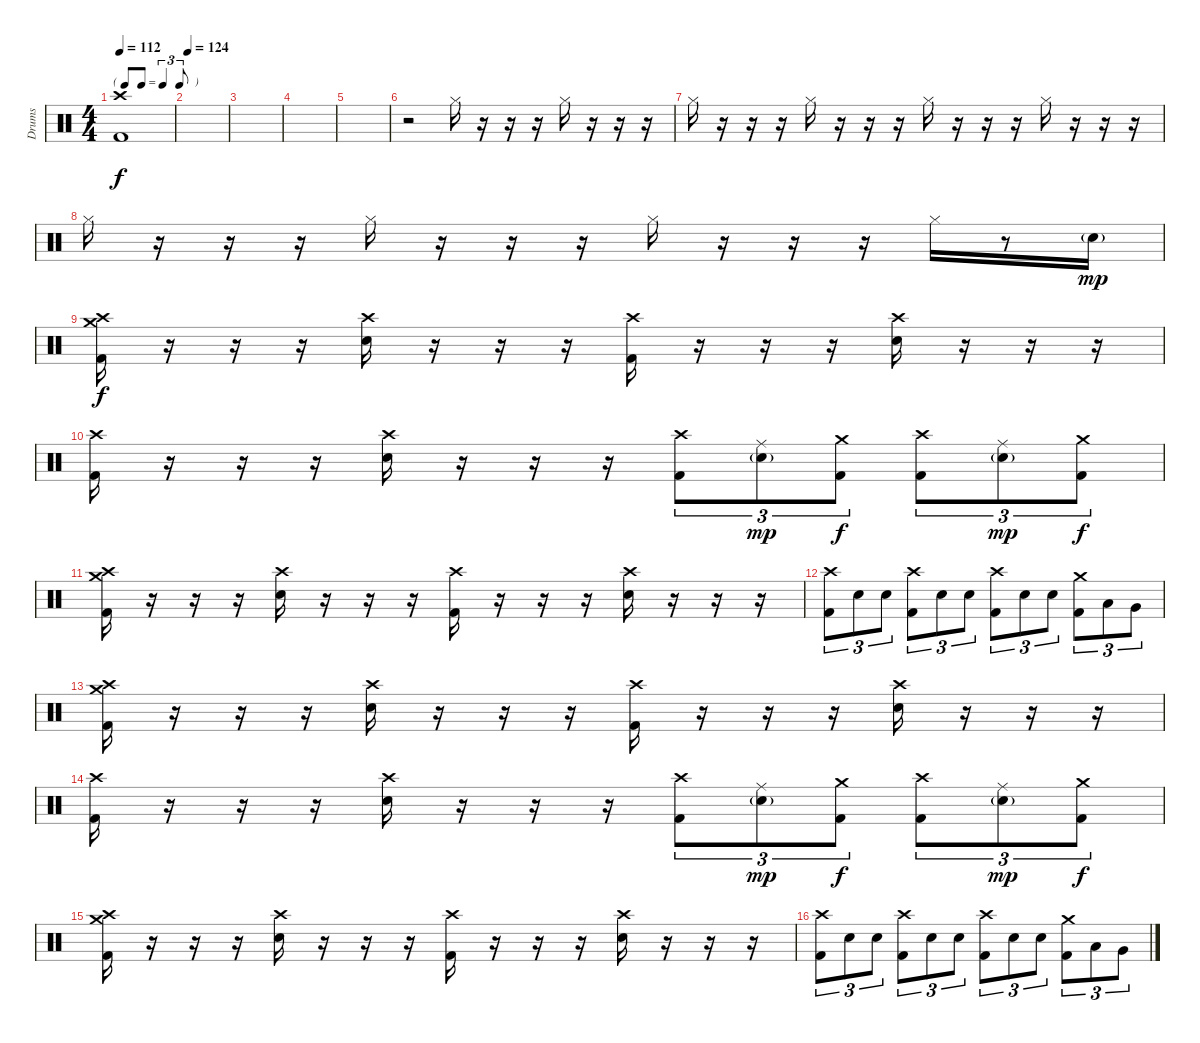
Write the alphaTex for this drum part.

\track ("Drums" "Drums") {instrument percussion}
\staff
\articulation defaults
\ts (4 4)
\tf triplet8th
\tempo 112
\clef neutral
\ks c
("Kick (hit) 2" "Crash high (hit)").1{dy f} |
\tempo 124
|
|
|
|
r.2{volume 0} "Hi-Hat (closed)".16{volume 16} r.16 r.16 r.16 "Hi-Hat (closed)".16 r.16 r.16 r.16 |
"Hi-Hat (closed)".16 r.16 r.16 r.16 "Hi-Hat (closed)".16 r.16 r.16 r.16 "Hi-Hat (closed)".16 r.16 r.16 r.16 "Hi-Hat (closed)".16 r.16 r.16 r.16 |
"Hi-Hat (closed)".16 r.16 r.16 r.16 "Hi-Hat (closed)".16 r.16 r.16 r.16 "Hi-Hat (closed)".16 r.16 r.16 r.16 "Hi-Hat (closed)".16 r.8 "Electric Snare (hit)"{g}.16{dy mp} |
("Kick (hit) 2" "Crash high (hit)" "Crash medium (hit)").16{dy f} r.16 r.16 r.16 ("Electric Snare (hit)" "Crash high (hit)").16 r.16 r.16 r.16 ("Kick (hit) 2" "Crash high (hit)").16 r.16 r.16 r.16 ("Electric Snare (hit)" "Crash high (hit)").16 r.16 r.16 r.16 |
("Kick (hit) 2" "Crash high (hit)").16 r.16 r.16 r.16 ("Electric Snare (hit)" "Crash high (hit)").16 r.16 r.16 r.16 ("Kick (hit) 2" "Crash high (hit)").8{tu (3 2)} ("Electric Snare (hit)"{g} "Ride (middle)").8{tu (3 2) dy mp} ("Kick (hit) 2" "Crash medium (hit)").8{tu (3 2) dy f} ("Kick (hit) 2" "Crash high (hit)").8{tu (3 2)} ("Electric Snare (hit)"{g} "Ride (middle)").8{tu (3 2) dy mp} ("Kick (hit) 2" "Crash medium (hit)").8{tu (3 2) dy f} |
("Kick (hit) 2" "Crash high (hit)" "Crash medium (hit)").16 r.16 r.16 r.16 ("Electric Snare (hit)" "Crash high (hit)").16 r.16 r.16 r.16 ("Kick (hit) 2" "Crash high (hit)").16 r.16 r.16 r.16 ("Electric Snare (hit)" "Crash high (hit)").16 r.16 r.16 r.16 |
("Kick (hit) 2" "Crash high (hit)").8{tu (3 2)} "Electric Snare (hit)".8{tu (3 2)} "Electric Snare (hit)".8{tu (3 2)} ("Kick (hit) 2" "Crash high (hit)").8{tu (3 2)} "Electric Snare (hit)".8{tu (3 2)} "Electric Snare (hit)".8{tu (3 2)} ("Kick (hit) 2" "Crash high (hit)").8{tu (3 2)} "Electric Snare (hit)".8{tu (3 2)} "Electric Snare (hit)".8{tu (3 2)} ("Kick (hit) 2" "Crash medium (hit)").8{tu (3 2)} "Low Tom (hit)".8{tu (3 2)} "Very Low Tom (hit)".8{tu (3 2)} |
("Kick (hit) 2" "Crash high (hit)" "Crash medium (hit)").16 r.16 r.16 r.16 ("Electric Snare (hit)" "Crash high (hit)").16 r.16 r.16 r.16 ("Kick (hit) 2" "Crash high (hit)").16 r.16 r.16 r.16 ("Electric Snare (hit)" "Crash high (hit)").16 r.16 r.16 r.16 |
("Kick (hit) 2" "Crash high (hit)").16 r.16 r.16 r.16 ("Electric Snare (hit)" "Crash high (hit)").16 r.16 r.16 r.16 ("Kick (hit) 2" "Crash high (hit)").8{tu (3 2)} ("Electric Snare (hit)"{g} "Ride (middle)").8{tu (3 2) dy mp} ("Kick (hit) 2" "Crash medium (hit)").8{tu (3 2) dy f} ("Kick (hit) 2" "Crash high (hit)").8{tu (3 2)} ("Electric Snare (hit)"{g} "Ride (middle)").8{tu (3 2) dy mp} ("Kick (hit) 2" "Crash medium (hit)").8{tu (3 2) dy f} |
("Kick (hit) 2" "Crash high (hit)" "Crash medium (hit)").16 r.16 r.16 r.16 ("Electric Snare (hit)" "Crash high (hit)").16 r.16 r.16 r.16 ("Kick (hit) 2" "Crash high (hit)").16 r.16 r.16 r.16 ("Electric Snare (hit)" "Crash high (hit)").16 r.16 r.16 r.16 |
("Kick (hit) 2" "Crash high (hit)").8{tu (3 2)} "Electric Snare (hit)".8{tu (3 2)} "Electric Snare (hit)".8{tu (3 2)} ("Kick (hit) 2" "Crash high (hit)").8{tu (3 2)} "Electric Snare (hit)".8{tu (3 2)} "Electric Snare (hit)".8{tu (3 2)} ("Kick (hit) 2" "Crash high (hit)").8{tu (3 2)} "Electric Snare (hit)".8{tu (3 2)} "Electric Snare (hit)".8{tu (3 2)} ("Kick (hit) 2" "Crash medium (hit)").8{tu (3 2)} "Low Tom (hit)".8{tu (3 2)} "Very Low Tom (hit)".8{tu (3 2)}
